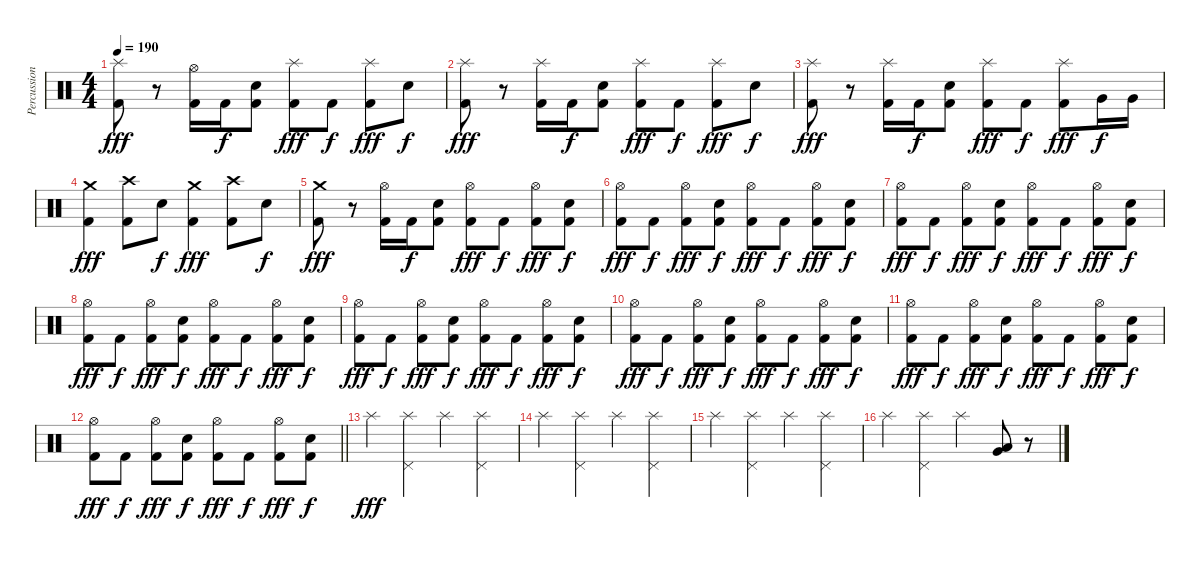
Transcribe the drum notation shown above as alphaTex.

\track ("Percussions" "Percussion") {instrument percussion}
\staff {score}
\articulation defaults
\ts (4 4)
\tempo 190
\clef neutral
\ks c
("Splash (hit)" "Kick (hit) 2").8{dy fff} r.8 ("Hi-Hat (open)" "Kick (hit) 2").16 "Kick (hit) 2".16{dy f} ("Snare (hit) 2" "Kick (hit) 2").8 ("Splash (hit)" "Kick (hit) 2").8{dy fff} "Kick (hit) 2".8{dy f} ("Splash (hit)" "Kick (hit) 2").8{dy fff} "Snare (hit) 2".8{dy f} |
("Splash (hit)" "Kick (hit) 2").8{dy fff} r.8 ("Splash (hit)" "Kick (hit) 2").16 "Kick (hit) 2".16{dy f} ("Snare (hit) 2" "Kick (hit) 2").8 ("Splash (hit)" "Kick (hit) 2").8{dy fff} "Kick (hit) 2".8{dy f} ("Splash (hit)" "Kick (hit) 2").8{dy fff} "Snare (hit) 2".8{dy f} |
("Splash (hit)" "Kick (hit) 2").8{dy fff} r.8 ("Splash (hit)" "Kick (hit) 2").16 "Kick (hit) 2".16{dy f} ("Snare (hit) 2" "Kick (hit) 2").8 ("Splash (hit)" "Kick (hit) 2").8{dy fff} "Kick (hit) 2".8{dy f} ("Splash (hit)" "Kick (hit) 2").8{dy fff} "Very Low Tom (hit)".16{dy f} "Very Low Tom (hit)".16 |
("Crash medium (hit)" "Kick (hit) 2").4{dy fff} ("Crash high (hit)" "Kick (hit) 2").8 "Snare (hit) 2".8{dy f} ("Crash medium (hit)" "Kick (hit) 2").4{dy fff} ("Crash high (hit)" "Kick (hit) 2").8 "Snare (hit) 2".8{dy f} |
("Crash medium (hit)" "Kick (hit) 2").8{dy fff} r.8 ("Hi-Hat (open)" "Kick (hit) 2").16 "Kick (hit) 2".16{dy f} ("Snare (hit) 2" "Kick (hit) 2").8 ("Hi-Hat (open)" "Kick (hit) 2").8{dy fff} "Kick (hit) 2".8{dy f} ("Hi-Hat (open)" "Kick (hit) 2").8{dy fff} ("Snare (hit) 2" "Kick (hit) 2").8{dy f} |
("Hi-Hat (open)" "Kick (hit) 2").8{dy fff} "Kick (hit) 2".8{dy f} ("Hi-Hat (open)" "Kick (hit) 2").8{dy fff} ("Snare (hit) 2" "Kick (hit) 2").8{dy f} ("Hi-Hat (open)" "Kick (hit) 2").8{dy fff} "Kick (hit) 2".8{dy f} ("Hi-Hat (open)" "Kick (hit) 2").8{dy fff} ("Snare (hit) 2" "Kick (hit) 2").8{dy f} |
("Hi-Hat (open)" "Kick (hit) 2").8{dy fff} "Kick (hit) 2".8{dy f} ("Hi-Hat (open)" "Kick (hit) 2").8{dy fff} ("Snare (hit) 2" "Kick (hit) 2").8{dy f} ("Hi-Hat (open)" "Kick (hit) 2").8{dy fff} "Kick (hit) 2".8{dy f} ("Hi-Hat (open)" "Kick (hit) 2").8{dy fff} ("Snare (hit) 2" "Kick (hit) 2").8{dy f} |
("Hi-Hat (open)" "Kick (hit) 2").8{dy fff} "Kick (hit) 2".8{dy f} ("Hi-Hat (open)" "Kick (hit) 2").8{dy fff} ("Snare (hit) 2" "Kick (hit) 2").8{dy f} ("Hi-Hat (open)" "Kick (hit) 2").8{dy fff} "Kick (hit) 2".8{dy f} ("Hi-Hat (open)" "Kick (hit) 2").8{dy fff} ("Snare (hit) 2" "Kick (hit) 2").8{dy f} |
("Hi-Hat (open)" "Kick (hit) 2").8{dy fff} "Kick (hit) 2".8{dy f} ("Hi-Hat (open)" "Kick (hit) 2").8{dy fff} ("Snare (hit) 2" "Kick (hit) 2").8{dy f} ("Hi-Hat (open)" "Kick (hit) 2").8{dy fff} "Kick (hit) 2".8{dy f} ("Hi-Hat (open)" "Kick (hit) 2").8{dy fff} ("Snare (hit) 2" "Kick (hit) 2").8{dy f} |
("Hi-Hat (open)" "Kick (hit) 2").8{dy fff} "Kick (hit) 2".8{dy f} ("Hi-Hat (open)" "Kick (hit) 2").8{dy fff} ("Snare (hit) 2" "Kick (hit) 2").8{dy f} ("Hi-Hat (open)" "Kick (hit) 2").8{dy fff} "Kick (hit) 2".8{dy f} ("Hi-Hat (open)" "Kick (hit) 2").8{dy fff} ("Snare (hit) 2" "Kick (hit) 2").8{dy f} |
("Hi-Hat (open)" "Kick (hit) 2").8{dy fff} "Kick (hit) 2".8{dy f} ("Hi-Hat (open)" "Kick (hit) 2").8{dy fff} ("Snare (hit) 2" "Kick (hit) 2").8{dy f} ("Hi-Hat (open)" "Kick (hit) 2").8{dy fff} "Kick (hit) 2".8{dy f} ("Hi-Hat (open)" "Kick (hit) 2").8{dy fff} ("Snare (hit) 2" "Kick (hit) 2").8{dy f} |
\barLineRight lightlight
("Hi-Hat (open)" "Kick (hit) 2").8{dy fff} "Kick (hit) 2".8{dy f} ("Hi-Hat (open)" "Kick (hit) 2").8{dy fff} ("Snare (hit) 2" "Kick (hit) 2").8{dy f} ("Hi-Hat (open)" "Kick (hit) 2").8{dy fff} "Kick (hit) 2".8{dy f} ("Hi-Hat (open)" "Kick (hit) 2").8{dy fff} ("Snare (hit) 2" "Kick (hit) 2").8{dy f} |
"Splash (hit)".4{dy fff} ("Splash (hit)" "Pedal Hi-Hat (hit)").4 "Splash (hit)".4 ("Splash (hit)" "Pedal Hi-Hat (hit)").4 |
"Splash (hit)".4 ("Splash (hit)" "Pedal Hi-Hat (hit)").4 "Splash (hit)".4 ("Splash (hit)" "Pedal Hi-Hat (hit)").4 |
"Splash (hit)".4 ("Splash (hit)" "Pedal Hi-Hat (hit)").4 "Splash (hit)".4 ("Splash (hit)" "Pedal Hi-Hat (hit)").4 |
"Splash (hit)".4 ("Splash (hit)" "Pedal Hi-Hat (hit)").4 "Splash (hit)".4 ("Very Low Tom (hit)" "Low Floor Tom (hit)").8 r.8
